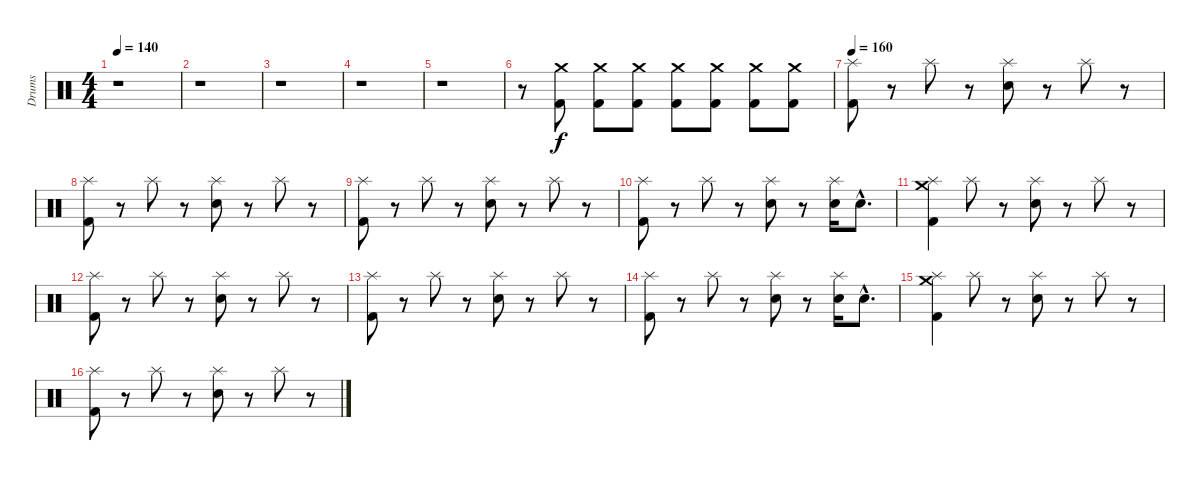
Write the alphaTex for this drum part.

\track ("Drums" "Drums") {instrument percussion}
\staff {score}
\articulation defaults
\ts (4 4)
\tempo 140
\clef neutral
\ks c
r.1{dy f} |
r.1 |
r.1 |
r.1 |
r.1 |
r.8 ("Crash medium (hit)" "Kick (hit) 2").8 ("Crash medium (hit)" "Kick (hit) 2").8 ("Crash medium (hit)" "Kick (hit) 2").8 ("Crash medium (hit)" "Kick (hit) 2").8 ("Crash medium (hit)" "Kick (hit) 2").8 ("Kick (hit) 2" "Crash medium (hit)").8 ("Crash medium (hit)" "Kick (hit) 2").8 |
\tempo 160
("Kick (hit) 2" "Splash (hit)").8 r.8 "Splash (hit)".8 r.8 ("Snare (hit) 2" "Splash (hit)").8 r.8 "Splash (hit)".8 r.8 |
("Kick (hit) 2" "Splash (hit)").8 r.8 "Splash (hit)".8 r.8 ("Snare (hit) 2" "Splash (hit)").8 r.8 "Splash (hit)".8 r.8 |
("Kick (hit) 2" "Splash (hit)").8 r.8 "Splash (hit)".8 r.8 ("Snare (hit) 2" "Splash (hit)").8 r.8 "Splash (hit)".8 r.8 |
("Kick (hit) 2" "Splash (hit)").8 r.8 "Splash (hit)".8 r.8 ("Snare (hit) 2" "Splash (hit)").8 r.8 ("Splash (hit)" "Snare (hit) 2").16 "Snare (hit) 2"{hac}.8{d} |
("Kick (hit) 2" "Splash (hit)" "Crash medium (hit)").4 "Splash (hit)".8 r.8 ("Snare (hit) 2" "Splash (hit)").8 r.8 "Splash (hit)".8 r.8 |
("Kick (hit) 2" "Splash (hit)").8 r.8 "Splash (hit)".8 r.8 ("Snare (hit) 2" "Splash (hit)").8 r.8 "Splash (hit)".8 r.8 |
("Kick (hit) 2" "Splash (hit)").8 r.8 "Splash (hit)".8 r.8 ("Snare (hit) 2" "Splash (hit)").8 r.8 "Splash (hit)".8 r.8 |
("Kick (hit) 2" "Splash (hit)").8 r.8 "Splash (hit)".8 r.8 ("Snare (hit) 2" "Splash (hit)").8 r.8 ("Splash (hit)" "Snare (hit) 2").16 "Snare (hit) 2"{hac}.8{d} |
("Kick (hit) 2" "Splash (hit)" "Crash medium (hit)").4 "Splash (hit)".8 r.8 ("Snare (hit) 2" "Splash (hit)").8 r.8 "Splash (hit)".8 r.8 |
("Kick (hit) 2" "Splash (hit)").8 r.8 "Splash (hit)".8 r.8 ("Snare (hit) 2" "Splash (hit)").8 r.8 "Splash (hit)".8 r.8
